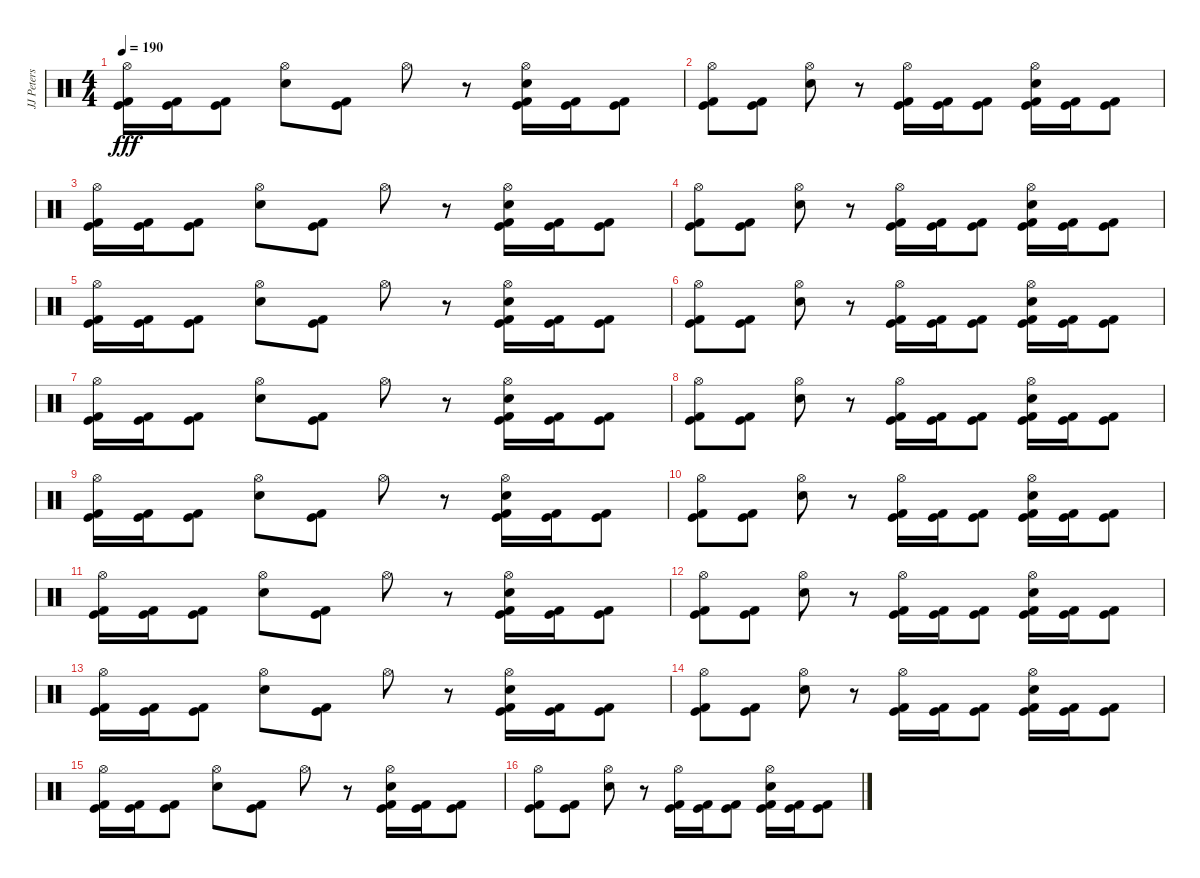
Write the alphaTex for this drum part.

\track ("JJ Peters" "JJ Peters") {instrument percussion}
\staff {score}
\articulation defaults
\ts (4 4)
\tempo 190
\clef neutral
\ks c
("Hi-Hat (open)" "Kick (hit)" "Kick (hit) 2").16{dy fff} ("Kick (hit)" "Kick (hit) 2").16 ("Kick (hit)" "Kick (hit) 2").8 ("Hi-Hat (open)" "Electric Snare (hit)").8 ("Kick (hit)" "Kick (hit) 2").8 "Hi-Hat (open)".8 r.8 ("Hi-Hat (open)" "Electric Snare (hit)" "Kick (hit)" "Kick (hit) 2").16 ("Kick (hit)" "Kick (hit) 2").16 ("Kick (hit)" "Kick (hit) 2").8 |
("Hi-Hat (open)" "Kick (hit)" "Kick (hit) 2").8 ("Kick (hit)" "Kick (hit) 2").8 ("Hi-Hat (open)" "Electric Snare (hit)").8 r.8 ("Hi-Hat (open)" "Kick (hit)" "Kick (hit) 2").16 ("Kick (hit)" "Kick (hit) 2").16 ("Kick (hit)" "Kick (hit) 2").8 ("Hi-Hat (open)" "Electric Snare (hit)" "Kick (hit)" "Kick (hit) 2").16 ("Kick (hit)" "Kick (hit) 2").16 ("Kick (hit)" "Kick (hit) 2").8 |
("Hi-Hat (open)" "Kick (hit)" "Kick (hit) 2").16 ("Kick (hit)" "Kick (hit) 2").16 ("Kick (hit)" "Kick (hit) 2").8 ("Hi-Hat (open)" "Electric Snare (hit)").8 ("Kick (hit)" "Kick (hit) 2").8 "Hi-Hat (open)".8 r.8 ("Hi-Hat (open)" "Electric Snare (hit)" "Kick (hit)" "Kick (hit) 2").16 ("Kick (hit)" "Kick (hit) 2").16 ("Kick (hit)" "Kick (hit) 2").8 |
("Hi-Hat (open)" "Kick (hit)" "Kick (hit) 2").8 ("Kick (hit)" "Kick (hit) 2").8 ("Hi-Hat (open)" "Electric Snare (hit)").8 r.8 ("Hi-Hat (open)" "Kick (hit)" "Kick (hit) 2").16 ("Kick (hit)" "Kick (hit) 2").16 ("Kick (hit)" "Kick (hit) 2").8 ("Hi-Hat (open)" "Electric Snare (hit)" "Kick (hit)" "Kick (hit) 2").16 ("Kick (hit)" "Kick (hit) 2").16 ("Kick (hit)" "Kick (hit) 2").8 |
("Hi-Hat (open)" "Kick (hit)" "Kick (hit) 2").16 ("Kick (hit)" "Kick (hit) 2").16 ("Kick (hit)" "Kick (hit) 2").8 ("Hi-Hat (open)" "Electric Snare (hit)").8 ("Kick (hit)" "Kick (hit) 2").8 "Hi-Hat (open)".8 r.8 ("Hi-Hat (open)" "Electric Snare (hit)" "Kick (hit)" "Kick (hit) 2").16 ("Kick (hit)" "Kick (hit) 2").16 ("Kick (hit)" "Kick (hit) 2").8 |
("Hi-Hat (open)" "Kick (hit)" "Kick (hit) 2").8 ("Kick (hit)" "Kick (hit) 2").8 ("Hi-Hat (open)" "Electric Snare (hit)").8 r.8 ("Hi-Hat (open)" "Kick (hit)" "Kick (hit) 2").16 ("Kick (hit)" "Kick (hit) 2").16 ("Kick (hit)" "Kick (hit) 2").8 ("Hi-Hat (open)" "Electric Snare (hit)" "Kick (hit)" "Kick (hit) 2").16 ("Kick (hit)" "Kick (hit) 2").16 ("Kick (hit)" "Kick (hit) 2").8 |
("Hi-Hat (open)" "Kick (hit)" "Kick (hit) 2").16 ("Kick (hit)" "Kick (hit) 2").16 ("Kick (hit)" "Kick (hit) 2").8 ("Hi-Hat (open)" "Electric Snare (hit)").8 ("Kick (hit)" "Kick (hit) 2").8 "Hi-Hat (open)".8 r.8 ("Hi-Hat (open)" "Electric Snare (hit)" "Kick (hit)" "Kick (hit) 2").16 ("Kick (hit)" "Kick (hit) 2").16 ("Kick (hit)" "Kick (hit) 2").8 |
("Hi-Hat (open)" "Kick (hit)" "Kick (hit) 2").8 ("Kick (hit)" "Kick (hit) 2").8 ("Hi-Hat (open)" "Electric Snare (hit)").8 r.8 ("Hi-Hat (open)" "Kick (hit)" "Kick (hit) 2").16 ("Kick (hit)" "Kick (hit) 2").16 ("Kick (hit)" "Kick (hit) 2").8 ("Hi-Hat (open)" "Electric Snare (hit)" "Kick (hit)" "Kick (hit) 2").16 ("Kick (hit)" "Kick (hit) 2").16 ("Kick (hit)" "Kick (hit) 2").8 |
("Hi-Hat (open)" "Kick (hit)" "Kick (hit) 2").16 ("Kick (hit)" "Kick (hit) 2").16 ("Kick (hit)" "Kick (hit) 2").8 ("Hi-Hat (open)" "Electric Snare (hit)").8 ("Kick (hit)" "Kick (hit) 2").8 "Hi-Hat (open)".8 r.8 ("Hi-Hat (open)" "Electric Snare (hit)" "Kick (hit)" "Kick (hit) 2").16 ("Kick (hit)" "Kick (hit) 2").16 ("Kick (hit)" "Kick (hit) 2").8 |
("Hi-Hat (open)" "Kick (hit)" "Kick (hit) 2").8 ("Kick (hit)" "Kick (hit) 2").8 ("Hi-Hat (open)" "Electric Snare (hit)").8 r.8 ("Hi-Hat (open)" "Kick (hit)" "Kick (hit) 2").16 ("Kick (hit)" "Kick (hit) 2").16 ("Kick (hit)" "Kick (hit) 2").8 ("Hi-Hat (open)" "Electric Snare (hit)" "Kick (hit)" "Kick (hit) 2").16 ("Kick (hit)" "Kick (hit) 2").16 ("Kick (hit)" "Kick (hit) 2").8 |
("Hi-Hat (open)" "Kick (hit)" "Kick (hit) 2").16 ("Kick (hit)" "Kick (hit) 2").16 ("Kick (hit)" "Kick (hit) 2").8 ("Hi-Hat (open)" "Electric Snare (hit)").8 ("Kick (hit)" "Kick (hit) 2").8 "Hi-Hat (open)".8 r.8 ("Hi-Hat (open)" "Electric Snare (hit)" "Kick (hit)" "Kick (hit) 2").16 ("Kick (hit)" "Kick (hit) 2").16 ("Kick (hit)" "Kick (hit) 2").8 |
("Hi-Hat (open)" "Kick (hit)" "Kick (hit) 2").8 ("Kick (hit)" "Kick (hit) 2").8 ("Hi-Hat (open)" "Electric Snare (hit)").8 r.8 ("Hi-Hat (open)" "Kick (hit)" "Kick (hit) 2").16 ("Kick (hit)" "Kick (hit) 2").16 ("Kick (hit)" "Kick (hit) 2").8 ("Hi-Hat (open)" "Electric Snare (hit)" "Kick (hit)" "Kick (hit) 2").16 ("Kick (hit)" "Kick (hit) 2").16 ("Kick (hit)" "Kick (hit) 2").8 |
("Hi-Hat (open)" "Kick (hit)" "Kick (hit) 2").16 ("Kick (hit)" "Kick (hit) 2").16 ("Kick (hit)" "Kick (hit) 2").8 ("Hi-Hat (open)" "Electric Snare (hit)").8 ("Kick (hit)" "Kick (hit) 2").8 "Hi-Hat (open)".8 r.8 ("Hi-Hat (open)" "Electric Snare (hit)" "Kick (hit)" "Kick (hit) 2").16 ("Kick (hit)" "Kick (hit) 2").16 ("Kick (hit)" "Kick (hit) 2").8 |
("Hi-Hat (open)" "Kick (hit)" "Kick (hit) 2").8 ("Kick (hit)" "Kick (hit) 2").8 ("Hi-Hat (open)" "Electric Snare (hit)").8 r.8 ("Hi-Hat (open)" "Kick (hit)" "Kick (hit) 2").16 ("Kick (hit)" "Kick (hit) 2").16 ("Kick (hit)" "Kick (hit) 2").8 ("Hi-Hat (open)" "Electric Snare (hit)" "Kick (hit)" "Kick (hit) 2").16 ("Kick (hit)" "Kick (hit) 2").16 ("Kick (hit)" "Kick (hit) 2").8 |
("Hi-Hat (open)" "Kick (hit)" "Kick (hit) 2").16 ("Kick (hit)" "Kick (hit) 2").16 ("Kick (hit)" "Kick (hit) 2").8 ("Hi-Hat (open)" "Electric Snare (hit)").8 ("Kick (hit)" "Kick (hit) 2").8 "Hi-Hat (open)".8 r.8 ("Hi-Hat (open)" "Electric Snare (hit)" "Kick (hit)" "Kick (hit) 2").16 ("Kick (hit)" "Kick (hit) 2").16 ("Kick (hit)" "Kick (hit) 2").8 |
("Hi-Hat (open)" "Kick (hit)" "Kick (hit) 2").8 ("Kick (hit)" "Kick (hit) 2").8 ("Hi-Hat (open)" "Electric Snare (hit)").8 r.8 ("Hi-Hat (open)" "Kick (hit)" "Kick (hit) 2").16 ("Kick (hit)" "Kick (hit) 2").16 ("Kick (hit)" "Kick (hit) 2").8 ("Hi-Hat (open)" "Electric Snare (hit)" "Kick (hit)" "Kick (hit) 2").16 ("Kick (hit)" "Kick (hit) 2").16 ("Kick (hit)" "Kick (hit) 2").8
